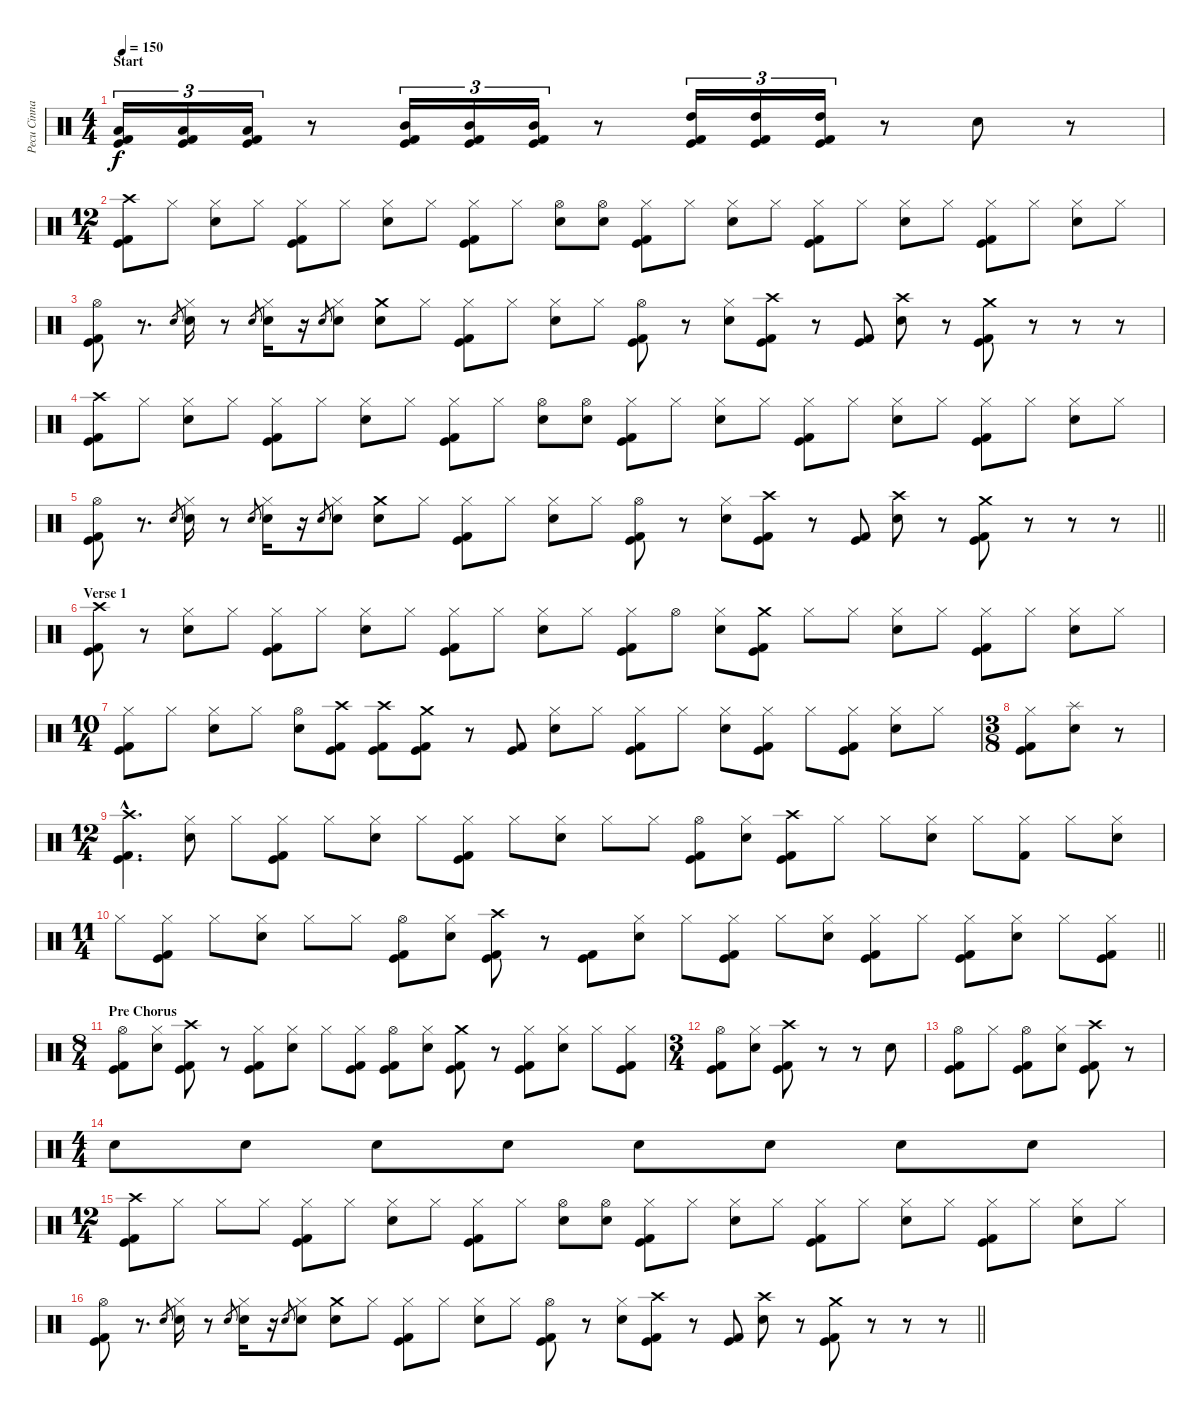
\track ("Pecu Cinnari" "Pecu Cinna") {instrument percussion}
\staff {score}
\articulation defaults
\ts (4 4)
\section ("" "Start")
\tempo 150
\clef neutral
\ks c
("Low Tom (hit)" "Kick (hit) 2" "Kick (hit)").16{tu (3 2) dy f} ("Low Tom (hit)" "Kick (hit) 2" "Kick (hit)").16{tu (3 2)} ("Low Tom (hit)" "Kick (hit) 2" "Kick (hit)").16{tu (3 2)} r.8 ("Mid Tom (hit)" "Kick (hit) 2" "Kick (hit)").16{tu (3 2)} ("Mid Tom (hit)" "Kick (hit) 2" "Kick (hit)").16{tu (3 2)} ("Mid Tom (hit)" "Kick (hit) 2" "Kick (hit)").16{tu (3 2)} r.8 ("High Tom (hit)" "Kick (hit) 2" "Kick (hit)").16{tu (3 2)} ("High Tom (hit)" "Kick (hit) 2" "Kick (hit)").16{tu (3 2)} ("High Tom (hit)" "Kick (hit) 2" "Kick (hit)").16{tu (3 2)} r.8 "Snare (hit) 2".8 r.8 |
\ts (12 4)
("Crash high (hit)" "Kick (hit)" "Kick (hit) 2").8 "Hi-Hat (closed)".8 ("Hi-Hat (closed)" "Snare (hit) 2").8 "Hi-Hat (closed)".8 ("Hi-Hat (closed)" "Kick (hit)" "Kick (hit) 2").8 "Hi-Hat (closed)".8 ("Hi-Hat (closed)" "Snare (hit) 2").8 "Hi-Hat (closed)".8 ("Hi-Hat (closed)" "Kick (hit)" "Kick (hit) 2").8 "Hi-Hat (closed)".8 ("Hi-Hat (open)" "Snare (hit) 2").8 ("Hi-Hat (open)" "Snare (hit) 2").8 ("Hi-Hat (closed)" "Kick (hit)" "Kick (hit) 2").8 "Hi-Hat (closed)".8 ("Hi-Hat (closed)" "Snare (hit) 2").8 "Hi-Hat (closed)".8 ("Hi-Hat (closed)" "Kick (hit)" "Kick (hit) 2").8 "Hi-Hat (closed)".8 ("Hi-Hat (closed)" "Snare (hit) 2").8 "Hi-Hat (closed)".8 ("Hi-Hat (closed)" "Kick (hit)" "Kick (hit) 2").8 "Hi-Hat (closed)".8 ("Hi-Hat (closed)" "Snare (hit) 2").8 "Hi-Hat (closed)".8 |
("Hi-Hat (open)" "Kick (hit)" "Kick (hit) 2").8 r.8{d} "Snare (hit) 2".8{gr} ("Hi-Hat (closed)" "Snare (hit) 2").16 r.8 "Snare (hit) 2".8{gr} ("Hi-Hat (closed)" "Snare (hit) 2").16 r.16 "Snare (hit) 2".8{gr} ("Hi-Hat (closed)" "Snare (hit) 2").8 ("Crash medium (hit)" "Snare (hit) 2").8 "Hi-Hat (closed)".8 ("Hi-Hat (closed)" "Kick (hit)" "Kick (hit) 2").8 "Hi-Hat (closed)".8 ("Hi-Hat (closed)" "Snare (hit) 2").8 "Hi-Hat (closed)".8 ("Hi-Hat (open)" "Kick (hit)" "Kick (hit) 2").8 r.8 ("Hi-Hat (closed)" "Snare (hit) 2").8 ("Crash high (hit)" "Kick (hit)" "Kick (hit) 2").8 r.8 ("Kick (hit)" "Kick (hit) 2").8 ("Crash high (hit)" "Snare (hit) 2").8 r.8 ("Crash medium (hit)" "Kick (hit)" "Kick (hit) 2").8 r.8 r.8 r.8 |
("Crash high (hit)" "Kick (hit)" "Kick (hit) 2").8 "Hi-Hat (closed)".8 ("Hi-Hat (closed)" "Snare (hit) 2").8 "Hi-Hat (closed)".8 ("Hi-Hat (closed)" "Kick (hit)" "Kick (hit) 2").8 "Hi-Hat (closed)".8 ("Hi-Hat (closed)" "Snare (hit) 2").8 "Hi-Hat (closed)".8 ("Hi-Hat (closed)" "Kick (hit)" "Kick (hit) 2").8 "Hi-Hat (closed)".8 ("Hi-Hat (open)" "Snare (hit) 2").8 ("Hi-Hat (open)" "Snare (hit) 2").8 ("Hi-Hat (closed)" "Kick (hit)" "Kick (hit) 2").8 "Hi-Hat (closed)".8 ("Hi-Hat (closed)" "Snare (hit) 2").8 "Hi-Hat (closed)".8 ("Hi-Hat (closed)" "Kick (hit)" "Kick (hit) 2").8 "Hi-Hat (closed)".8 ("Hi-Hat (closed)" "Snare (hit) 2").8 "Hi-Hat (closed)".8 ("Hi-Hat (closed)" "Kick (hit)" "Kick (hit) 2").8 "Hi-Hat (closed)".8 ("Hi-Hat (closed)" "Snare (hit) 2").8 "Hi-Hat (closed)".8 |
\barLineRight lightlight
("Hi-Hat (open)" "Kick (hit)" "Kick (hit) 2").8 r.8{d} "Snare (hit) 2".8{gr} ("Hi-Hat (closed)" "Snare (hit) 2").16 r.8 "Snare (hit) 2".8{gr} ("Hi-Hat (closed)" "Snare (hit) 2").16 r.16 "Snare (hit) 2".8{gr} ("Hi-Hat (closed)" "Snare (hit) 2").8 ("Crash medium (hit)" "Snare (hit) 2").8 "Hi-Hat (closed)".8 ("Hi-Hat (closed)" "Kick (hit)" "Kick (hit) 2").8 "Hi-Hat (closed)".8 ("Hi-Hat (closed)" "Snare (hit) 2").8 "Hi-Hat (closed)".8 ("Hi-Hat (open)" "Kick (hit)" "Kick (hit) 2").8 r.8 ("Hi-Hat (closed)" "Snare (hit) 2").8 ("Crash high (hit)" "Kick (hit)" "Kick (hit) 2").8 r.8 ("Kick (hit)" "Kick (hit) 2").8 ("Crash high (hit)" "Snare (hit) 2").8 r.8 ("Crash medium (hit)" "Kick (hit)" "Kick (hit) 2").8 r.8 r.8 r.8 |
\section ("" "Verse 1")
("Crash high (hit)" "Kick (hit)" "Kick (hit) 2").8 r.8 ("Hi-Hat (closed)" "Snare (hit) 2").8 "Hi-Hat (closed)".8 ("Hi-Hat (closed)" "Kick (hit)" "Kick (hit) 2").8 "Hi-Hat (closed)".8 ("Hi-Hat (closed)" "Snare (hit) 2").8 "Hi-Hat (closed)".8 ("Hi-Hat (closed)" "Kick (hit)" "Kick (hit) 2").8 "Hi-Hat (closed)".8 ("Hi-Hat (closed)" "Snare (hit) 2").8 "Hi-Hat (closed)".8 ("Hi-Hat (closed)" "Kick (hit)" "Kick (hit) 2").8 "Hi-Hat (open)".8 ("Hi-Hat (closed)" "Snare (hit) 2").8 ("Crash medium (hit)" "Kick (hit)" "Kick (hit) 2").8 "Hi-Hat (closed)".8 "Hi-Hat (closed)".8 ("Hi-Hat (closed)" "Snare (hit) 2").8 "Hi-Hat (closed)".8 ("Hi-Hat (closed)" "Kick (hit)" "Kick (hit) 2").8 "Hi-Hat (closed)".8 ("Hi-Hat (closed)" "Snare (hit) 2").8 "Hi-Hat (closed)".8 |
\ts (10 4)
("Hi-Hat (closed)" "Kick (hit)" "Kick (hit) 2").8 "Hi-Hat (closed)".8 ("Hi-Hat (closed)" "Snare (hit) 2").8 "Hi-Hat (closed)".8 ("Hi-Hat (open)" "Snare (hit) 2").8 ("Crash high (hit)" "Kick (hit)" "Kick (hit) 2").8 ("Crash high (hit)" "Kick (hit)" "Kick (hit) 2").8 ("Crash medium (hit)" "Kick (hit)" "Kick (hit) 2").8 r.8 ("Kick (hit)" "Kick (hit) 2").8 ("Hi-Hat (closed)" "Snare (hit) 2").8 "Hi-Hat (closed)".8 ("Hi-Hat (closed)" "Kick (hit)" "Kick (hit) 2").8 "Hi-Hat (closed)".8 ("Hi-Hat (closed)" "Snare (hit) 2").8 ("Hi-Hat (closed)" "Kick (hit)" "Kick (hit) 2").8 "Hi-Hat (closed)".8 ("Hi-Hat (closed)" "Kick (hit)" "Kick (hit) 2").8 ("Hi-Hat (closed)" "Snare (hit) 2").8 "Hi-Hat (closed)".8 |
\ts (3 8)
("Hi-Hat (closed)" "Kick (hit)" "Kick (hit) 2").8 ("Splash (hit)" "Snare (hit) 2").8 r.8 |
\ts (12 4)
("Crash high (hit)"{hac} "Kick (hit)"{hac} "Kick (hit) 2"{hac}).4{d} ("Hi-Hat (closed)" "Snare (hit) 2").8 "Hi-Hat (closed)".8 ("Hi-Hat (closed)" "Kick (hit)" "Kick (hit) 2").8 "Hi-Hat (closed)".8 ("Hi-Hat (closed)" "Snare (hit) 2").8 "Hi-Hat (closed)".8 ("Hi-Hat (closed)" "Kick (hit)" "Kick (hit) 2").8 "Hi-Hat (closed)".8 ("Hi-Hat (closed)" "Snare (hit) 2").8 "Hi-Hat (closed)".8 "Hi-Hat (closed)".8 ("Hi-Hat (open)" "Kick (hit)" "Kick (hit) 2").8 ("Hi-Hat (closed)" "Snare (hit) 2").8 ("Crash high (hit)" "Kick (hit)" "Kick (hit) 2").8 "Hi-Hat (closed)".8 "Hi-Hat (closed)".8 ("Hi-Hat (closed)" "Snare (hit) 2").8 "Hi-Hat (closed)".8 ("Hi-Hat (closed)" "Kick (hit) 2").8 "Hi-Hat (closed)".8 ("Hi-Hat (closed)" "Snare (hit) 2").8 |
\ts (11 4)
\barLineRight lightlight "Hi-Hat (closed)".8
("Hi-Hat (closed)" "Kick (hit)" "Kick (hit) 2").8 "Hi-Hat (closed)".8 ("Hi-Hat (closed)" "Snare (hit) 2").8 "Hi-Hat (closed)".8 "Hi-Hat (closed)".8 ("Hi-Hat (open)" "Kick (hit)" "Kick (hit) 2").8 ("Hi-Hat (closed)" "Snare (hit) 2").8 ("Crash high (hit)" "Kick (hit)" "Kick (hit) 2").8 r.8 ("Kick (hit)" "Kick (hit) 2").8 ("Hi-Hat (closed)" "Snare (hit) 2").8 "Hi-Hat (closed)".8 ("Hi-Hat (closed)" "Kick (hit)" "Kick (hit) 2").8 "Hi-Hat (closed)".8 ("Hi-Hat (closed)" "Snare (hit) 2").8 ("Hi-Hat (closed)" "Kick (hit)" "Kick (hit) 2").8 "Hi-Hat (closed)".8 ("Hi-Hat (closed)" "Kick (hit)" "Kick (hit) 2").8 ("Hi-Hat (closed)" "Snare (hit) 2").8 "Hi-Hat (closed)".8 ("Hi-Hat (closed)" "Kick (hit)" "Kick (hit) 2").8 |
\ts (8 4)
\section ("" "Pre Chorus")
("Hi-Hat (open)" "Kick (hit)" "Kick (hit) 2").8 ("Hi-Hat (closed)" "Snare (hit) 2").8 ("Crash high (hit)" "Kick (hit)" "Kick (hit) 2").8 r.8 ("Hi-Hat (closed)" "Kick (hit)" "Kick (hit) 2").8 ("Hi-Hat (closed)" "Snare (hit) 2").8 "Hi-Hat (closed)".8 ("Hi-Hat (closed)" "Kick (hit)" "Kick (hit) 2").8 ("Hi-Hat (open)" "Kick (hit)" "Kick (hit) 2").8 ("Hi-Hat (closed)" "Snare (hit) 2").8 ("Crash medium (hit)" "Kick (hit)" "Kick (hit) 2").8 r.8 ("Hi-Hat (closed)" "Kick (hit)" "Kick (hit) 2").8 ("Hi-Hat (closed)" "Snare (hit) 2").8 "Hi-Hat (closed)".8 ("Hi-Hat (closed)" "Kick (hit)" "Kick (hit) 2").8 |
\ts (3 4)
("Hi-Hat (open)" "Kick (hit)" "Kick (hit) 2").8 ("Hi-Hat (closed)" "Snare (hit) 2").8 ("Crash high (hit)" "Kick (hit)" "Kick (hit) 2").8 r.8 r.8 "Snare (hit) 2".8 |
("Hi-Hat (open)" "Kick (hit)" "Kick (hit) 2").8 "Hi-Hat (closed)".8 ("Hi-Hat (open)" "Kick (hit)" "Kick (hit) 2").8 ("Hi-Hat (closed)" "Snare (hit) 2").8 ("Crash high (hit)" "Kick (hit)" "Kick (hit) 2").8 r.8 |
\ts (4 4)
"Snare (hit) 2".8 "Snare (hit) 2".8 "Snare (hit) 2".8 "Snare (hit) 2".8 "Snare (hit) 2".8 "Snare (hit) 2".8 "Snare (hit) 2".8 "Snare (hit) 2".8 |
\ts (12 4)
("Crash high (hit)" "Kick (hit)" "Kick (hit) 2").8 "Hi-Hat (closed)".8 "Hi-Hat (closed)".8 "Hi-Hat (closed)".8 ("Hi-Hat (closed)" "Kick (hit)" "Kick (hit) 2").8 "Hi-Hat (closed)".8 ("Hi-Hat (closed)" "Snare (hit) 2").8 "Hi-Hat (closed)".8 ("Hi-Hat (closed)" "Kick (hit)" "Kick (hit) 2").8 "Hi-Hat (closed)".8 ("Hi-Hat (open)" "Snare (hit) 2").8 ("Hi-Hat (open)" "Snare (hit) 2").8 ("Hi-Hat (closed)" "Kick (hit)" "Kick (hit) 2").8 "Hi-Hat (closed)".8 ("Hi-Hat (closed)" "Snare (hit) 2").8 "Hi-Hat (closed)".8 ("Hi-Hat (closed)" "Kick (hit)" "Kick (hit) 2").8 "Hi-Hat (closed)".8 ("Hi-Hat (closed)" "Snare (hit) 2").8 "Hi-Hat (closed)".8 ("Hi-Hat (closed)" "Kick (hit)" "Kick (hit) 2").8 "Hi-Hat (closed)".8 ("Hi-Hat (closed)" "Snare (hit) 2").8 "Hi-Hat (closed)".8 |
\barLineRight lightlight
("Hi-Hat (open)" "Kick (hit)" "Kick (hit) 2").8 r.8{d} "Snare (hit) 2".8{gr} ("Hi-Hat (closed)" "Snare (hit) 2").16 r.8 "Snare (hit) 2".8{gr} ("Hi-Hat (closed)" "Snare (hit) 2").16 r.16 "Snare (hit) 2".8{gr} ("Hi-Hat (closed)" "Snare (hit) 2").8 ("Crash medium (hit)" "Snare (hit) 2").8 "Hi-Hat (closed)".8 ("Hi-Hat (closed)" "Kick (hit)" "Kick (hit) 2").8 "Hi-Hat (closed)".8 ("Hi-Hat (closed)" "Snare (hit) 2").8 "Hi-Hat (closed)".8 ("Hi-Hat (open)" "Kick (hit)" "Kick (hit) 2").8 r.8 ("Hi-Hat (closed)" "Snare (hit) 2").8 ("Crash high (hit)" "Kick (hit)" "Kick (hit) 2").8 r.8 ("Kick (hit)" "Kick (hit) 2").8 ("Crash high (hit)" "Snare (hit) 2").8 r.8 ("Crash medium (hit)" "Kick (hit)" "Kick (hit) 2").8 r.8 r.8 r.8
